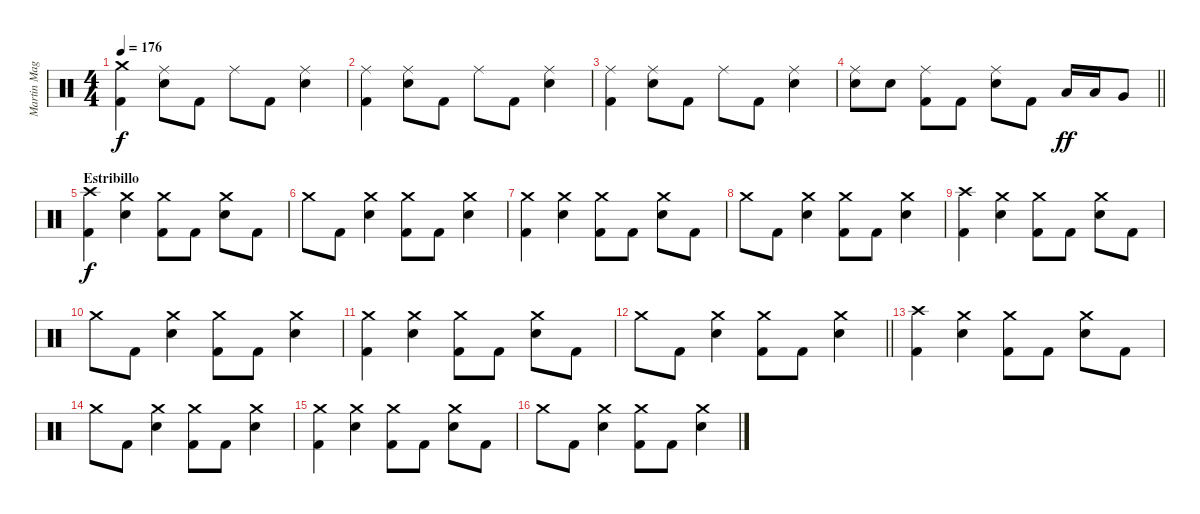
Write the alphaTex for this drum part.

\track ("Martin Magliano" "Martin Mag") {instrument percussion}
\staff {score}
\articulation defaults
\ts (4 4)
\tempo 176
\clef neutral
\ks c
("Crash medium (hit)" "Kick (hit) 2").4{dy f} ("Ride (middle)" "Snare (hit) 2").8 "Kick (hit) 2".8 "Ride (middle)".8 "Kick (hit) 2".8 ("Ride (middle)" "Snare (hit) 2").4 |
("Ride (middle)" "Kick (hit) 2").4 ("Ride (middle)" "Snare (hit) 2").8 "Kick (hit) 2".8 "Ride (middle)".8 "Kick (hit) 2".8 ("Ride (middle)" "Snare (hit) 2").4 |
("Ride (middle)" "Kick (hit) 2").4 ("Ride (middle)" "Snare (hit) 2").8 "Kick (hit) 2".8 "Ride (middle)".8 "Kick (hit) 2".8 ("Ride (middle)" "Snare (hit) 2").4 |
\barLineRight lightlight
("Ride (middle)" "Snare (hit) 2").8 "Snare (hit) 2".8 ("Ride (middle)" "Kick (hit) 2").8 "Kick (hit) 2".8 ("Ride (middle)" "Snare (hit) 2").8 "Kick (hit) 2".8 "Low Tom (hit)".16{dy ff} "Low Tom (hit)".16 "Very Low Tom (hit)".8 |
\section ("" "Estribillo")
("Crash high (hit)" "Kick (hit) 2").4{dy f} ("Crash medium (hit)" "Snare (hit) 2").4 ("Crash medium (hit)" "Kick (hit) 2").8 "Kick (hit) 2".8 ("Crash medium (hit)" "Snare (hit) 2").8 "Kick (hit) 2".8 |
"Crash medium (hit)".8 "Kick (hit) 2".8 ("Crash medium (hit)" "Snare (hit) 2").4 ("Crash medium (hit)" "Kick (hit) 2").8 "Kick (hit) 2".8 ("Crash medium (hit)" "Snare (hit) 2").4 |
("Crash medium (hit)" "Kick (hit) 2").4 ("Crash medium (hit)" "Snare (hit) 2").4 ("Crash medium (hit)" "Kick (hit) 2").8 "Kick (hit) 2".8 ("Crash medium (hit)" "Snare (hit) 2").8 "Kick (hit) 2".8 |
"Crash medium (hit)".8 "Kick (hit) 2".8 ("Crash medium (hit)" "Snare (hit) 2").4 ("Crash medium (hit)" "Kick (hit) 2").8 "Kick (hit) 2".8 ("Crash medium (hit)" "Snare (hit) 2").4 |
("Crash high (hit)" "Kick (hit) 2").4 ("Crash medium (hit)" "Snare (hit) 2").4 ("Crash medium (hit)" "Kick (hit) 2").8 "Kick (hit) 2".8 ("Crash medium (hit)" "Snare (hit) 2").8 "Kick (hit) 2".8 |
"Crash medium (hit)".8 "Kick (hit) 2".8 ("Crash medium (hit)" "Snare (hit) 2").4 ("Crash medium (hit)" "Kick (hit) 2").8 "Kick (hit) 2".8 ("Crash medium (hit)" "Snare (hit) 2").4 |
("Crash medium (hit)" "Kick (hit) 2").4 ("Crash medium (hit)" "Snare (hit) 2").4 ("Crash medium (hit)" "Kick (hit) 2").8 "Kick (hit) 2".8 ("Crash medium (hit)" "Snare (hit) 2").8 "Kick (hit) 2".8 |
\barLineRight lightlight "Crash medium (hit)".8 "Kick (hit) 2".8
("Crash medium (hit)" "Snare (hit) 2").4 ("Crash medium (hit)" "Kick (hit) 2").8 "Kick (hit) 2".8 ("Crash medium (hit)" "Snare (hit) 2").4 |
("Crash high (hit)" "Kick (hit) 2").4 ("Crash medium (hit)" "Snare (hit) 2").4 ("Crash medium (hit)" "Kick (hit) 2").8 "Kick (hit) 2".8 ("Crash medium (hit)" "Snare (hit) 2").8 "Kick (hit) 2".8 |
"Crash medium (hit)".8 "Kick (hit) 2".8 ("Crash medium (hit)" "Snare (hit) 2").4 ("Crash medium (hit)" "Kick (hit) 2").8 "Kick (hit) 2".8 ("Crash medium (hit)" "Snare (hit) 2").4 |
("Crash medium (hit)" "Kick (hit) 2").4 ("Crash medium (hit)" "Snare (hit) 2").4 ("Crash medium (hit)" "Kick (hit) 2").8 "Kick (hit) 2".8 ("Crash medium (hit)" "Snare (hit) 2").8 "Kick (hit) 2".8 |
"Crash medium (hit)".8 "Kick (hit) 2".8 ("Crash medium (hit)" "Snare (hit) 2").4 ("Crash medium (hit)" "Kick (hit) 2").8 "Kick (hit) 2".8 ("Crash medium (hit)" "Snare (hit) 2").4
